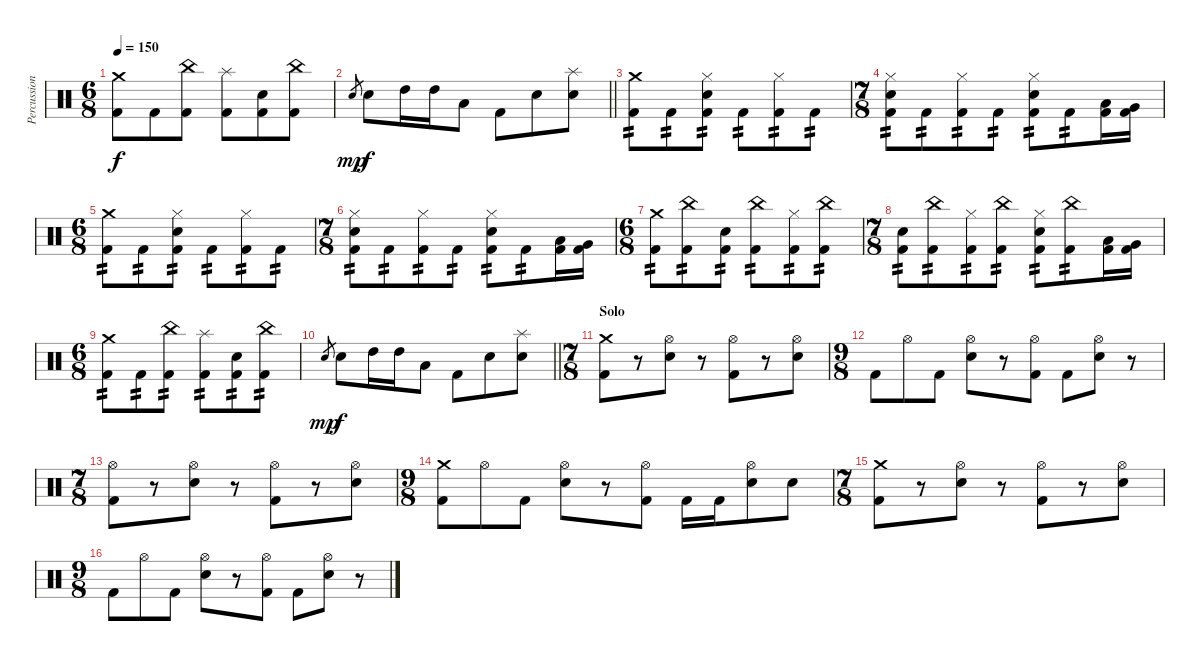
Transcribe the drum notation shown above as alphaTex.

\track ("Percussions" "Percussion") {instrument percussion}
\staff {score}
\articulation defaults
\ts (6 8)
\tempo 150
\clef neutral
\ks c
("Crash medium (hit)" "Kick (hit) 2").8{dy f} "Kick (hit) 2".8 ("China (hit)" "Kick (hit) 2").8 ("Splash (hit)" "Kick (hit) 2").8 ("Snare (hit) 2" "Kick (hit) 2").8 ("China (hit)" "Kick (hit) 2").8 |
\barLineRight lightlight "Snare (hit) 2".8{gr dy mp} "Snare (hit) 2".8{dy f} "High Tom (hit)".16 "High Tom (hit)".16 "Low Tom (hit)".8 "Kick (hit) 2".8 "Snare (hit) 2".8
("Splash (hit)" "Snare (hit) 2").8 |
("Crash medium (hit)" "Kick (hit) 2").8{tp 2} "Kick (hit) 2".8{tp 2} ("Hi-Hat (closed)" "Snare (hit) 2" "Kick (hit) 2").8{tp 2} "Kick (hit) 2".8{tp 2} ("Hi-Hat (closed)" "Kick (hit) 2").8{tp 2} "Kick (hit) 2".8{tp 2} |
\ts (7 8)
("Hi-Hat (closed)" "Snare (hit) 2" "Kick (hit) 2").8{tp 2} "Kick (hit) 2".8{tp 2} ("Hi-Hat (closed)" "Kick (hit) 2").8{tp 2} "Kick (hit) 2".8{tp 2} ("Hi-Hat (closed)" "Snare (hit) 2" "Kick (hit) 2").8{tp 2} "Kick (hit) 2".8{tp 2} ("Low Tom (hit)" "Kick (hit) 2").16 ("Very Low Tom (hit)" "Kick (hit) 2").16 |
\ts (6 8)
("Crash medium (hit)" "Kick (hit) 2").8{tp 2} "Kick (hit) 2".8{tp 2} ("Hi-Hat (closed)" "Snare (hit) 2" "Kick (hit) 2").8{tp 2} "Kick (hit) 2".8{tp 2} ("Hi-Hat (closed)" "Kick (hit) 2").8{tp 2} "Kick (hit) 2".8{tp 2} |
\ts (7 8)
("Hi-Hat (closed)" "Snare (hit) 2" "Kick (hit) 2").8{tp 2} "Kick (hit) 2".8{tp 2} ("Hi-Hat (closed)" "Kick (hit) 2").8{tp 2} "Kick (hit) 2".8{tp 2} ("Hi-Hat (closed)" "Snare (hit) 2" "Kick (hit) 2").8{tp 2} "Kick (hit) 2".8{tp 2} ("Low Tom (hit)" "Kick (hit) 2").16 ("Very Low Tom (hit)" "Kick (hit) 2").16 |
\ts (6 8)
("Crash medium (hit)" "Kick (hit) 2").8{tp 2} ("China (hit)" "Kick (hit) 2").8{tp 2} ("Snare (hit) 2" "Kick (hit) 2").8{tp 2} ("China (hit)" "Kick (hit) 2").8{tp 2} ("Hi-Hat (closed)" "Kick (hit) 2").8{tp 2} ("China (hit)" "Kick (hit) 2").8{tp 2} |
\ts (7 8)
("Snare (hit) 2" "Kick (hit) 2").8{tp 2} ("China (hit)" "Kick (hit) 2").8{tp 2} ("Hi-Hat (closed)" "Kick (hit) 2").8{tp 2} ("China (hit)" "Kick (hit) 2").8{tp 2} ("Hi-Hat (closed)" "Snare (hit) 2" "Kick (hit) 2").8{tp 2} ("China (hit)" "Kick (hit) 2").8{tp 2} ("Low Tom (hit)" "Kick (hit) 2").16 ("Very Low Tom (hit)" "Kick (hit) 2").16 |
\ts (6 8)
("Crash medium (hit)" "Kick (hit) 2").8{tp 2} "Kick (hit) 2".8{tp 2} ("China (hit)" "Kick (hit) 2").8{tp 2} ("Splash (hit)" "Kick (hit) 2").8{tp 2} ("Snare (hit) 2" "Kick (hit) 2").8{tp 2} ("China (hit)" "Kick (hit) 2").8{tp 2} |
\barLineRight lightlight "Snare (hit) 2".8{gr dy mp} "Snare (hit) 2".8{dy f} "High Tom (hit)".16 "High Tom (hit)".16 "Low Tom (hit)".8 "Kick (hit) 2".8 "Snare (hit) 2".8
("Splash (hit)" "Snare (hit) 2").8 |
\ts (7 8)
\section ("" "Solo")
("Crash medium (hit)" "Kick (hit) 2").8 r.8 ("Hi-Hat (open)" "Snare (hit) 2").8 r.8 ("Hi-Hat (open)" "Kick (hit) 2").8 r.8 ("Hi-Hat (open)" "Snare (hit) 2").8 |
\ts (9 8)
"Kick (hit) 2".8 "Hi-Hat (open)".8 "Kick (hit) 2".8 ("Hi-Hat (open)" "Snare (hit) 2").8 r.8 ("Hi-Hat (open)" "Kick (hit) 2").8 "Kick (hit) 2".8 ("Hi-Hat (open)" "Snare (hit) 2").8 r.8 |
\ts (7 8)
("Hi-Hat (open)" "Kick (hit) 2").8 r.8 ("Hi-Hat (open)" "Snare (hit) 2").8 r.8 ("Hi-Hat (open)" "Kick (hit) 2").8 r.8 ("Hi-Hat (open)" "Snare (hit) 2").8 |
\ts (9 8)
("Crash medium (hit)" "Kick (hit) 2").8 "Hi-Hat (open)".8 "Kick (hit) 2".8 ("Hi-Hat (open)" "Snare (hit) 2").8 r.8 ("Hi-Hat (open)" "Kick (hit) 2").8 "Kick (hit) 2".16 "Kick (hit) 2".16 ("Hi-Hat (open)" "Snare (hit) 2").8 "Snare (hit) 2".8 |
\ts (7 8)
("Crash medium (hit)" "Kick (hit) 2").8 r.8 ("Hi-Hat (open)" "Snare (hit) 2").8 r.8 ("Hi-Hat (open)" "Kick (hit) 2").8 r.8 ("Hi-Hat (open)" "Snare (hit) 2").8 |
\ts (9 8)
"Kick (hit) 2".8 "Hi-Hat (open)".8 "Kick (hit) 2".8 ("Hi-Hat (open)" "Snare (hit) 2").8 r.8 ("Hi-Hat (open)" "Kick (hit) 2").8 "Kick (hit) 2".8 ("Hi-Hat (open)" "Snare (hit) 2").8 r.8
